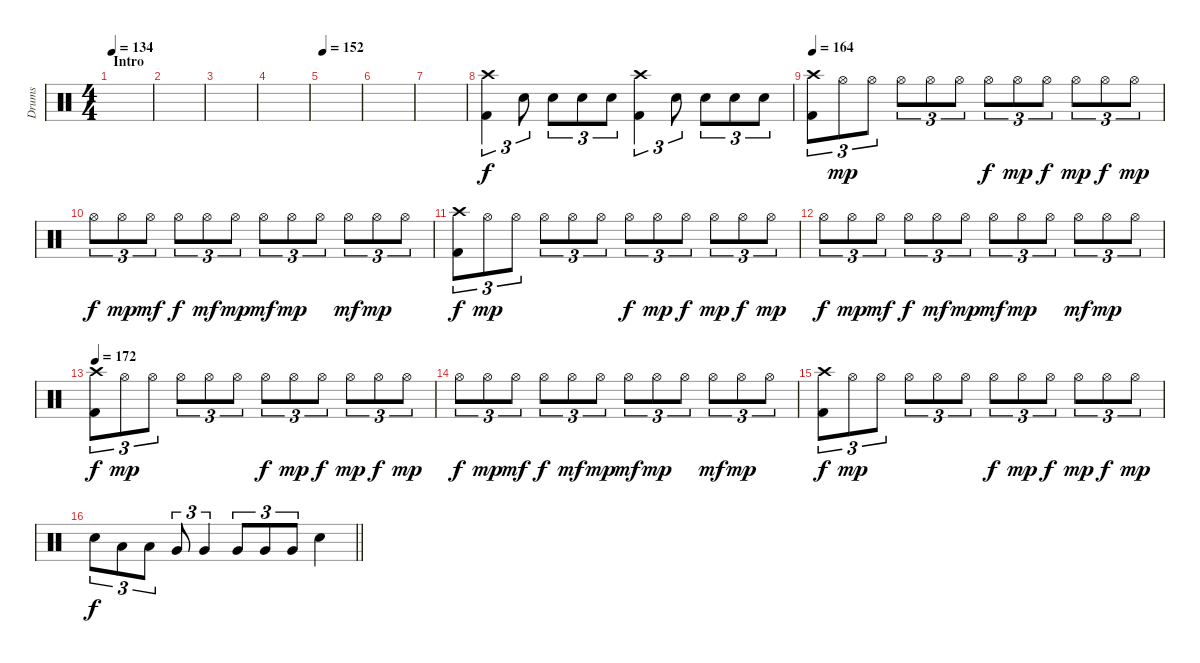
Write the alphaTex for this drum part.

\track ("Drums" "Drums") {instrument percussion}
\staff {score}
\articulation defaults
\ts (4 4)
\section ("" "Intro")
\tempo 134
\tempo 140
\tempo 134
\clef neutral
\ks c
|
|
|
|
\tempo 152
|
|
|
("Crash high (hit)" "Kick (hit) 2").4{tu (3 2)} "Electric Snare (hit)".8{tu (3 2)} "Electric Snare (hit)".8{tu (3 2)} "Electric Snare (hit)".8{tu (3 2)} "Electric Snare (hit)".8{tu (3 2)} ("Crash high (hit)" "Kick (hit) 2").4{tu (3 2)} "Electric Snare (hit)".8{tu (3 2)} "Electric Snare (hit)".8{tu (3 2)} "Electric Snare (hit)".8{tu (3 2)} "Electric Snare (hit)".8{tu (3 2)} |
\tempo 164
("Crash high (hit)" "Kick (hit) 2").8{tu (3 2)} "Hi-Hat (open)".8{tu (3 2) dy mp} "Hi-Hat (open)".8{tu (3 2)} "Hi-Hat (open)".8{tu (3 2)} "Hi-Hat (open)".8{tu (3 2)} "Hi-Hat (open)".8{tu (3 2)} "Hi-Hat (open)".8{tu (3 2) dy f} "Hi-Hat (open)".8{tu (3 2) dy mp} "Hi-Hat (open)".8{tu (3 2) dy f} "Hi-Hat (open)".8{tu (3 2) dy mp} "Hi-Hat (open)".8{tu (3 2) dy f} "Hi-Hat (open)".8{tu (3 2) dy mp} |
"Hi-Hat (open)".8{tu (3 2) dy f} "Hi-Hat (open)".8{tu (3 2) dy mp} "Hi-Hat (open)".8{tu (3 2) dy mf} "Hi-Hat (open)".8{tu (3 2) dy f} "Hi-Hat (open)".8{tu (3 2) dy mf} "Hi-Hat (open)".8{tu (3 2) dy mp} "Hi-Hat (open)".8{tu (3 2) dy mf} "Hi-Hat (open)".8{tu (3 2) dy mp} "Hi-Hat (open)".8{tu (3 2)} "Hi-Hat (open)".8{tu (3 2) dy mf} "Hi-Hat (open)".8{tu (3 2) dy mp} "Hi-Hat (open)".8{tu (3 2)} |
("Crash high (hit)" "Kick (hit) 2").8{tu (3 2) dy f} "Hi-Hat (open)".8{tu (3 2) dy mp} "Hi-Hat (open)".8{tu (3 2)} "Hi-Hat (open)".8{tu (3 2)} "Hi-Hat (open)".8{tu (3 2)} "Hi-Hat (open)".8{tu (3 2)} "Hi-Hat (open)".8{tu (3 2) dy f} "Hi-Hat (open)".8{tu (3 2) dy mp} "Hi-Hat (open)".8{tu (3 2) dy f} "Hi-Hat (open)".8{tu (3 2) dy mp} "Hi-Hat (open)".8{tu (3 2) dy f} "Hi-Hat (open)".8{tu (3 2) dy mp} |
"Hi-Hat (open)".8{tu (3 2) dy f} "Hi-Hat (open)".8{tu (3 2) dy mp} "Hi-Hat (open)".8{tu (3 2) dy mf} "Hi-Hat (open)".8{tu (3 2) dy f} "Hi-Hat (open)".8{tu (3 2) dy mf} "Hi-Hat (open)".8{tu (3 2) dy mp} "Hi-Hat (open)".8{tu (3 2) dy mf} "Hi-Hat (open)".8{tu (3 2) dy mp} "Hi-Hat (open)".8{tu (3 2)} "Hi-Hat (open)".8{tu (3 2) dy mf} "Hi-Hat (open)".8{tu (3 2) dy mp} "Hi-Hat (open)".8{tu (3 2)} |
\tempo 172
("Crash high (hit)" "Kick (hit) 2").8{tu (3 2) dy f} "Hi-Hat (open)".8{tu (3 2) dy mp} "Hi-Hat (open)".8{tu (3 2)} "Hi-Hat (open)".8{tu (3 2)} "Hi-Hat (open)".8{tu (3 2)} "Hi-Hat (open)".8{tu (3 2)} "Hi-Hat (open)".8{tu (3 2) dy f} "Hi-Hat (open)".8{tu (3 2) dy mp} "Hi-Hat (open)".8{tu (3 2) dy f} "Hi-Hat (open)".8{tu (3 2) dy mp} "Hi-Hat (open)".8{tu (3 2) dy f} "Hi-Hat (open)".8{tu (3 2) dy mp} |
"Hi-Hat (open)".8{tu (3 2) dy f} "Hi-Hat (open)".8{tu (3 2) dy mp} "Hi-Hat (open)".8{tu (3 2) dy mf} "Hi-Hat (open)".8{tu (3 2) dy f} "Hi-Hat (open)".8{tu (3 2) dy mf} "Hi-Hat (open)".8{tu (3 2) dy mp} "Hi-Hat (open)".8{tu (3 2) dy mf} "Hi-Hat (open)".8{tu (3 2) dy mp} "Hi-Hat (open)".8{tu (3 2)} "Hi-Hat (open)".8{tu (3 2) dy mf} "Hi-Hat (open)".8{tu (3 2) dy mp} "Hi-Hat (open)".8{tu (3 2)} |
("Crash high (hit)" "Kick (hit) 2").8{tu (3 2) dy f} "Hi-Hat (open)".8{tu (3 2) dy mp} "Hi-Hat (open)".8{tu (3 2)} "Hi-Hat (open)".8{tu (3 2)} "Hi-Hat (open)".8{tu (3 2)} "Hi-Hat (open)".8{tu (3 2)} "Hi-Hat (open)".8{tu (3 2) dy f} "Hi-Hat (open)".8{tu (3 2) dy mp} "Hi-Hat (open)".8{tu (3 2) dy f} "Hi-Hat (open)".8{tu (3 2) dy mp} "Hi-Hat (open)".8{tu (3 2) dy f} "Hi-Hat (open)".8{tu (3 2) dy mp} |
\barLineRight lightlight "Electric Snare (hit)".8{tu (3 2) dy f} "Low Tom (hit)".8{tu (3 2)} "Low Tom (hit)".8{tu (3 2)} "Very Low Tom (hit)".8{tu (3 2)} "Very Low Tom (hit)".4{tu (3 2)} "Very Low Tom (hit)".8{tu (3 2)} "Very Low Tom (hit)".8{tu (3 2)} "Very Low Tom (hit)".8{tu (3 2)} "Electric Snare (hit)".4
